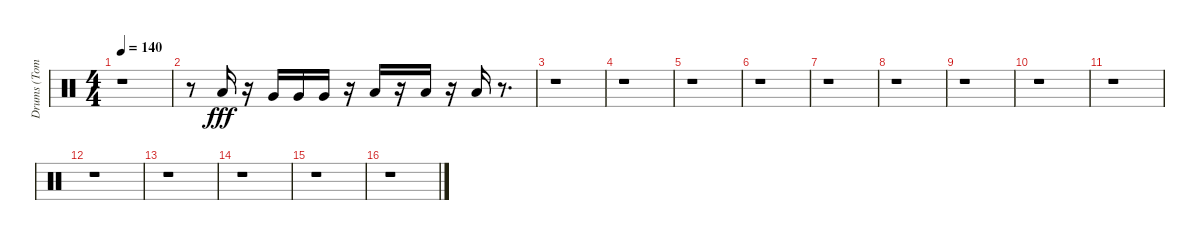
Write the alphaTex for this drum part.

\track ("Drums (Toms)" "Drums (Tom") {instrument percussion}
\staff {score}
\articulation defaults
\ts (4 4)
\tempo 140
\clef neutral
\ks c
r.1{dy fff} |
r.8 "Low Tom (hit)".16 r.16 "Very Low Tom (hit)".16 "Very Low Tom (hit)".16 "Very Low Tom (hit)".16 r.16 "Low Floor Tom (hit)".16 r.16 "Low Floor Tom (hit)".16 r.16 "Low Floor Tom (hit)".16 r.8{d} |
r.1 |
r.1 |
r.1 |
r.1 |
r.1 |
r.1 |
r.1 |
r.1 |
r.1 |
r.1 |
r.1 |
r.1 |
r.1 |
r.1
